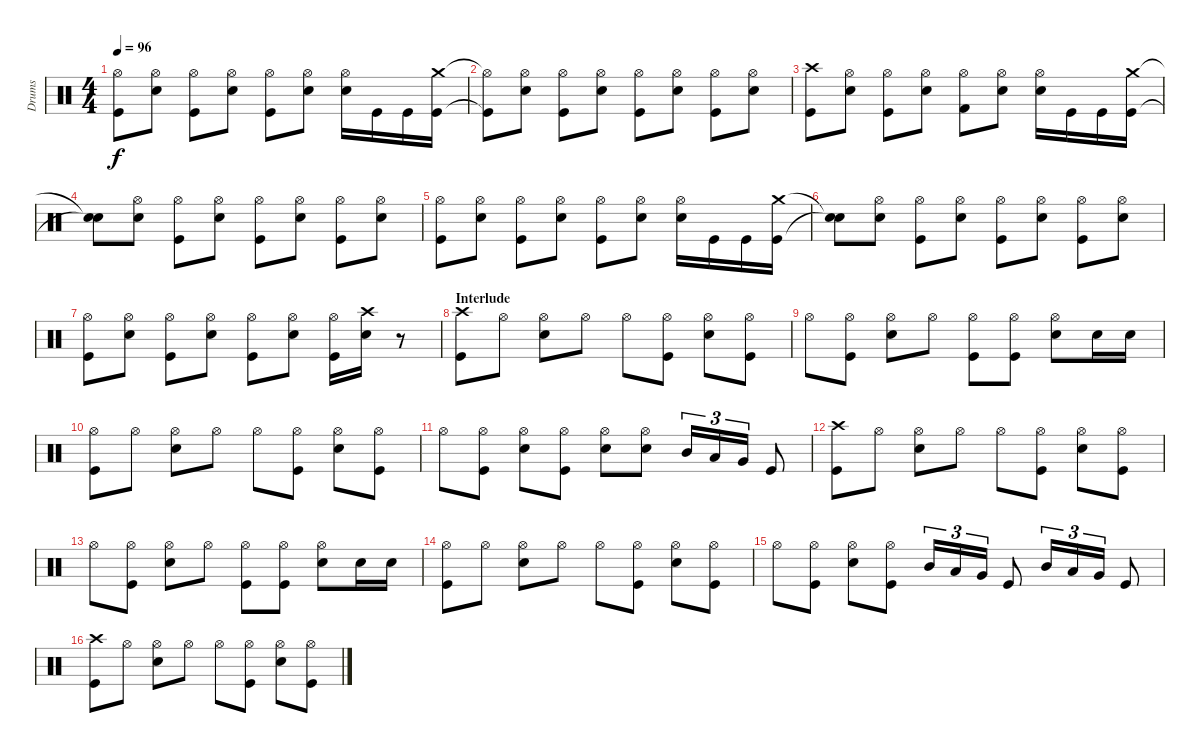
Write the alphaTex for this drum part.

\track ("Drums" "Drums") {instrument percussion}
\staff {score}
\articulation defaults
\ts (4 4)
\tempo 96
\clef neutral
\ks c
("Hi-Hat (open)" "Kick (hit)").8{dy f} ("Hi-Hat (open)" "Snare (hit) 2").8 ("Hi-Hat (open)" "Kick (hit)").8 ("Hi-Hat (open)" "Snare (hit) 2").8 ("Hi-Hat (open)" "Kick (hit)").8 ("Hi-Hat (open)" "Snare (hit) 2").8 ("Hi-Hat (open)" "Snare (hit) 2").16 "Kick (hit)".16 "Kick (hit)".16 ("Crash medium (hit)" "Kick (hit)").16 |
("Hi-Hat (open)"{t} "Kick (hit)"{t}).8 ("Hi-Hat (open)" "Snare (hit) 2").8 ("Hi-Hat (open)" "Kick (hit)").8 ("Hi-Hat (open)" "Snare (hit) 2").8 ("Hi-Hat (open)" "Kick (hit)").8 ("Hi-Hat (open)" "Snare (hit) 2").8 ("Hi-Hat (open)" "Kick (hit)").8 ("Hi-Hat (open)" "Snare (hit) 2").8 |
("Crash high (hit)" "Kick (hit)").8 ("Hi-Hat (open)" "Snare (hit) 2").8 ("Hi-Hat (open)" "Kick (hit)").8 ("Hi-Hat (open)" "Snare (hit) 2").8 ("Hi-Hat (open)" "Kick (hit) 2").8 ("Hi-Hat (open)" "Snare (hit) 2").8 ("Hi-Hat (open)" "Snare (hit) 2").16 "Kick (hit)".16 "Kick (hit)".16 ("Crash medium (hit)" "Kick (hit)").16 |
("Snare (hit)"{t} "Snare (hit)"{t}).8 ("Hi-Hat (open)" "Snare (hit) 2").8 ("Hi-Hat (open)" "Kick (hit)").8 ("Hi-Hat (open)" "Snare (hit) 2").8 ("Hi-Hat (open)" "Kick (hit)").8 ("Hi-Hat (open)" "Snare (hit) 2").8 ("Hi-Hat (open)" "Kick (hit)").8 ("Hi-Hat (open)" "Snare (hit) 2").8 |
("Hi-Hat (open)" "Kick (hit)").8 ("Hi-Hat (open)" "Snare (hit) 2").8 ("Hi-Hat (open)" "Kick (hit)").8 ("Hi-Hat (open)" "Snare (hit) 2").8 ("Hi-Hat (open)" "Kick (hit)").8 ("Hi-Hat (open)" "Snare (hit) 2").8 ("Hi-Hat (open)" "Snare (hit) 2").16 "Kick (hit)".16 "Kick (hit)".16 ("Crash medium (hit)" "Kick (hit)").16 |
("Snare (hit)"{t} "Snare (hit)"{t}).8 ("Hi-Hat (open)" "Snare (hit) 2").8 ("Hi-Hat (open)" "Kick (hit)").8 ("Hi-Hat (open)" "Snare (hit) 2").8 ("Hi-Hat (open)" "Kick (hit)").8 ("Hi-Hat (open)" "Snare (hit) 2").8 ("Hi-Hat (open)" "Kick (hit)").8 ("Hi-Hat (open)" "Snare (hit) 2").8 |
("Hi-Hat (open)" "Kick (hit)").8 ("Hi-Hat (open)" "Snare (hit) 2").8 ("Hi-Hat (open)" "Kick (hit)").8 ("Hi-Hat (open)" "Snare (hit) 2").8 ("Hi-Hat (open)" "Kick (hit)").8 ("Hi-Hat (open)" "Snare (hit) 2").8 ("Hi-Hat (open)" "Kick (hit)").16 ("Crash high (hit)" "Snare (hit) 2").16 r.8 |
\section ("" "Interlude")
("Crash high (hit)" "Kick (hit)").8 "Hi-Hat (open)".8 ("Hi-Hat (open)" "Snare (hit) 2").8 "Hi-Hat (open)".8 "Hi-Hat (open)".8 ("Hi-Hat (open)" "Kick (hit)").8 ("Hi-Hat (open)" "Snare (hit) 2").8 ("Hi-Hat (open)" "Kick (hit)").8 |
"Hi-Hat (open)".8 ("Hi-Hat (open)" "Kick (hit)").8 ("Hi-Hat (open)" "Snare (hit) 2").8 "Hi-Hat (open)".8 ("Hi-Hat (open)" "Kick (hit)").8 ("Hi-Hat (open)" "Kick (hit)").8 ("Hi-Hat (open)" "Snare (hit) 2").8 "Snare (hit) 2".16 "Snare (hit) 2".16 |
("Hi-Hat (open)" "Kick (hit)").8 "Hi-Hat (open)".8 ("Hi-Hat (open)" "Snare (hit) 2").8 "Hi-Hat (open)".8 "Hi-Hat (open)".8 ("Hi-Hat (open)" "Kick (hit)").8 ("Hi-Hat (open)" "Snare (hit) 2").8 ("Hi-Hat (open)" "Kick (hit)").8 |
"Hi-Hat (open)".8 ("Hi-Hat (open)" "Kick (hit)").8 ("Hi-Hat (open)" "Snare (hit) 2").8 ("Hi-Hat (open)" "Kick (hit)").8 ("Hi-Hat (open)" "Snare (hit) 2").8 ("Hi-Hat (open)" "Snare (hit) 2").8 "Mid Tom (hit)".16{tu (3 2)} "Low Tom (hit)".16{tu (3 2)} "Very Low Tom (hit)".16{tu (3 2)} "Kick (hit)".8 |
("Crash high (hit)" "Kick (hit)").8 "Hi-Hat (open)".8 ("Hi-Hat (open)" "Snare (hit) 2").8 "Hi-Hat (open)".8 "Hi-Hat (open)".8 ("Hi-Hat (open)" "Kick (hit)").8 ("Hi-Hat (open)" "Snare (hit) 2").8 ("Hi-Hat (open)" "Kick (hit)").8 |
"Hi-Hat (open)".8 ("Hi-Hat (open)" "Kick (hit)").8 ("Hi-Hat (open)" "Snare (hit) 2").8 "Hi-Hat (open)".8 ("Hi-Hat (open)" "Kick (hit)").8 ("Hi-Hat (open)" "Kick (hit)").8 ("Hi-Hat (open)" "Snare (hit) 2").8 "Snare (hit) 2".16 "Snare (hit) 2".16 |
("Hi-Hat (open)" "Kick (hit)").8 "Hi-Hat (open)".8 ("Hi-Hat (open)" "Snare (hit) 2").8 "Hi-Hat (open)".8 "Hi-Hat (open)".8 ("Hi-Hat (open)" "Kick (hit)").8 ("Hi-Hat (open)" "Snare (hit) 2").8 ("Hi-Hat (open)" "Kick (hit)").8 |
"Hi-Hat (open)".8 ("Hi-Hat (open)" "Kick (hit)").8 ("Hi-Hat (open)" "Snare (hit) 2").8 ("Hi-Hat (open)" "Kick (hit)").8 "Mid Tom (hit)".16{tu (3 2)} "Low Tom (hit)".16{tu (3 2)} "Very Low Tom (hit)".16{tu (3 2)} "Kick (hit)".8 "Mid Tom (hit)".16{tu (3 2)} "Low Tom (hit)".16{tu (3 2)} "Very Low Tom (hit)".16{tu (3 2)} "Kick (hit)".8 |
("Crash high (hit)" "Kick (hit)").8 "Hi-Hat (open)".8 ("Hi-Hat (open)" "Snare (hit) 2").8 "Hi-Hat (open)".8 "Hi-Hat (open)".8 ("Hi-Hat (open)" "Kick (hit)").8 ("Hi-Hat (open)" "Snare (hit) 2").8 ("Hi-Hat (open)" "Kick (hit)").8
